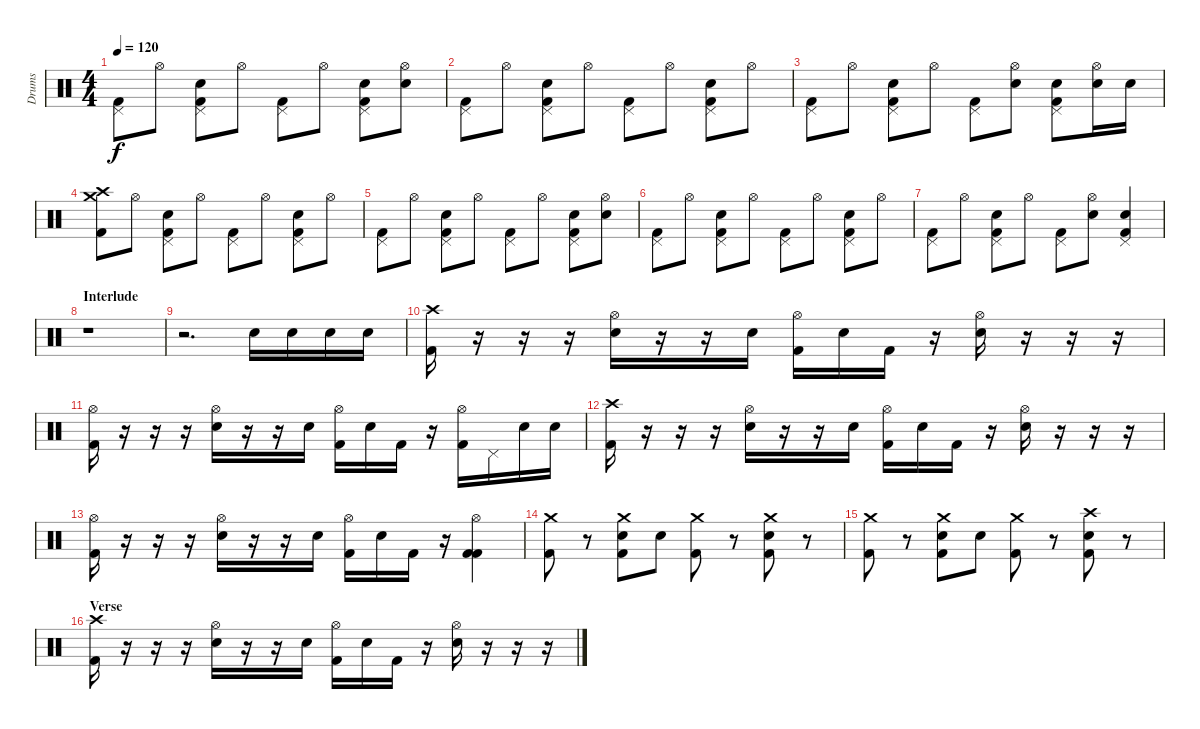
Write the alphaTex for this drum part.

\track ("Drums" "Drums") {instrument percussion}
\staff {score}
\articulation defaults
\ts (4 4)
\tempo 120
\clef neutral
\ks c
("Pedal Hi-Hat (hit)" "Kick (hit) 2").8{dy f} "Hi-Hat (open)".8 ("Pedal Hi-Hat (hit)" "Snare (hit) 2" "Kick (hit) 2").8 "Hi-Hat (open)".8 ("Pedal Hi-Hat (hit)" "Kick (hit) 2").8 "Hi-Hat (open)".8 ("Pedal Hi-Hat (hit)" "Snare (hit) 2" "Kick (hit) 2").8 ("Hi-Hat (open)" "Snare (hit) 2").8 |
("Pedal Hi-Hat (hit)" "Kick (hit) 2").8 "Hi-Hat (open)".8 ("Pedal Hi-Hat (hit)" "Snare (hit) 2" "Kick (hit) 2").8 "Hi-Hat (open)".8 ("Pedal Hi-Hat (hit)" "Kick (hit) 2").8 "Hi-Hat (open)".8 ("Pedal Hi-Hat (hit)" "Snare (hit) 2" "Kick (hit) 2").8 "Hi-Hat (open)".8 |
("Pedal Hi-Hat (hit)" "Kick (hit) 2").8 "Hi-Hat (open)".8 ("Pedal Hi-Hat (hit)" "Snare (hit) 2" "Kick (hit) 2").8 "Hi-Hat (open)".8 ("Pedal Hi-Hat (hit)" "Kick (hit) 2").8 ("Hi-Hat (open)" "Snare (hit) 2").8 ("Pedal Hi-Hat (hit)" "Snare (hit) 2" "Kick (hit) 2").8 ("Hi-Hat (open)" "Snare (hit) 2").16 "Snare (hit) 2".16 |
("Crash high (hit)" "Crash medium (hit)" "Kick (hit) 2").8 "Hi-Hat (open)".8 ("Pedal Hi-Hat (hit)" "Snare (hit) 2" "Kick (hit) 2").8 "Hi-Hat (open)".8 ("Pedal Hi-Hat (hit)" "Kick (hit) 2").8 "Hi-Hat (open)".8 ("Pedal Hi-Hat (hit)" "Snare (hit) 2" "Kick (hit) 2").8 "Hi-Hat (open)".8 |
("Pedal Hi-Hat (hit)" "Kick (hit) 2").8 "Hi-Hat (open)".8 ("Pedal Hi-Hat (hit)" "Snare (hit) 2" "Kick (hit) 2").8 "Hi-Hat (open)".8 ("Pedal Hi-Hat (hit)" "Kick (hit) 2").8 "Hi-Hat (open)".8 ("Pedal Hi-Hat (hit)" "Snare (hit) 2" "Kick (hit) 2").8 ("Hi-Hat (open)" "Snare (hit) 2").8 |
("Pedal Hi-Hat (hit)" "Kick (hit) 2").8 "Hi-Hat (open)".8 ("Pedal Hi-Hat (hit)" "Snare (hit) 2" "Kick (hit) 2").8 "Hi-Hat (open)".8 ("Pedal Hi-Hat (hit)" "Kick (hit) 2").8 "Hi-Hat (open)".8 ("Pedal Hi-Hat (hit)" "Snare (hit) 2" "Kick (hit) 2").8 "Hi-Hat (open)".8 |
("Pedal Hi-Hat (hit)" "Kick (hit) 2").8 "Hi-Hat (open)".8 ("Pedal Hi-Hat (hit)" "Snare (hit) 2" "Kick (hit) 2").8 "Hi-Hat (open)".8 ("Pedal Hi-Hat (hit)" "Kick (hit) 2").8 ("Hi-Hat (open)" "Snare (hit) 2").8 ("Pedal Hi-Hat (hit)" "Snare (hit) 2" "Kick (hit) 2").4 |
\section ("" "Interlude")
r.1 |
r.2{d} "Snare (hit) 2".16 "Snare (hit) 2".16 "Snare (hit) 2".16 "Snare (hit) 2".16 |
("Crash high (hit)" "Kick (hit) 2").16 r.16 r.16 r.16 ("Hi-Hat (open)" "Snare (hit) 2").16 r.16 r.16 "Snare (hit) 2".16 ("Hi-Hat (open)" "Kick (hit) 2").16 "Snare (hit) 2".16 "Kick (hit) 2".16 r.16 ("Hi-Hat (open)" "Snare (hit) 2").16 r.16 r.16 r.16 |
("Hi-Hat (open)" "Kick (hit) 2").16 r.16 r.16 r.16 ("Hi-Hat (open)" "Snare (hit) 2").16 r.16 r.16 "Snare (hit) 2".16 ("Hi-Hat (open)" "Kick (hit) 2").16 "Snare (hit) 2".16 "Kick (hit) 2".16 r.16 ("Hi-Hat (open)" "Kick (hit) 2").16 "Pedal Hi-Hat (hit)".16 "Snare (hit) 2".16 "Snare (hit) 2".16 |
("Crash high (hit)" "Kick (hit) 2").16 r.16 r.16 r.16 ("Hi-Hat (open)" "Snare (hit) 2").16 r.16 r.16 "Snare (hit) 2".16 ("Hi-Hat (open)" "Kick (hit) 2").16 "Snare (hit) 2".16 "Kick (hit) 2".16 r.16 ("Hi-Hat (open)" "Snare (hit) 2").16 r.16 r.16 r.16 |
("Hi-Hat (open)" "Kick (hit) 2").16 r.16 r.16 r.16 ("Hi-Hat (open)" "Snare (hit) 2").16 r.16 r.16 "Snare (hit) 2".16 ("Hi-Hat (open)" "Kick (hit) 2").16 "Snare (hit) 2".16 "Kick (hit) 2".16 r.16 ("Hi-Hat (open)" "Kick (hit) 2" "Kick (hit) 2").4 |
("Crash medium (hit)" "Kick (hit) 2").8 r.8 ("Crash medium (hit)" "Snare (hit) 2" "Kick (hit) 2").8 "Snare (hit) 2".8 ("Crash medium (hit)" "Kick (hit) 2").8 r.8 ("Crash medium (hit)" "Snare (hit) 2" "Kick (hit) 2").8 r.8 |
("Crash medium (hit)" "Kick (hit) 2").8 r.8 ("Crash medium (hit)" "Snare (hit) 2" "Kick (hit) 2").8 "Snare (hit) 2".8 ("Crash medium (hit)" "Kick (hit) 2").8 r.8 ("Crash high (hit)" "Snare (hit) 2" "Kick (hit) 2").8 r.8 |
\section ("" "Verse")
("Crash high (hit)" "Kick (hit) 2").16 r.16 r.16 r.16 ("Hi-Hat (open)" "Snare (hit) 2").16 r.16 r.16 "Snare (hit) 2".16 ("Hi-Hat (open)" "Kick (hit) 2").16 "Snare (hit) 2".16 "Kick (hit) 2".16 r.16 ("Hi-Hat (open)" "Snare (hit) 2").16 r.16 r.16 r.16
